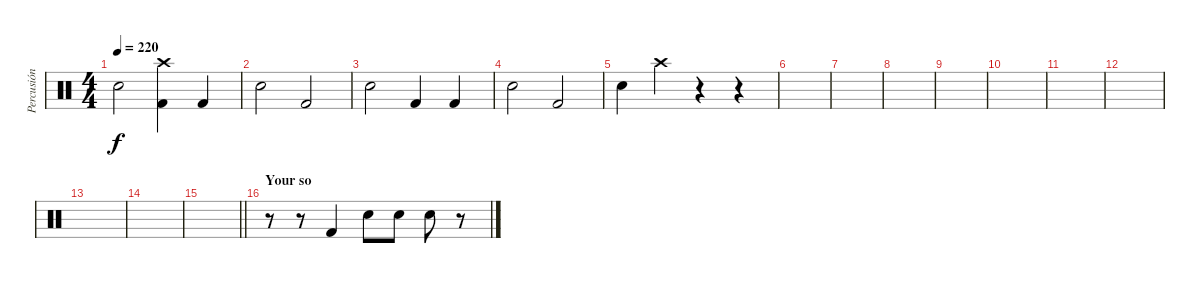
\track ("Percusión" "Percusión") {instrument percussion}
\staff {score}
\articulation defaults
\ts (4 4)
\tempo 220
\clef neutral
\ks c "Electric Snare (hit)".2{dy f}
("Crash high (hit)" "Kick (hit) 2").4 "Kick (hit) 2".4 |
"Electric Snare (hit)".2 "Kick (hit) 2".2 |
"Electric Snare (hit)".2 "Kick (hit) 2".4 "Kick (hit) 2".4 |
"Electric Snare (hit)".2 "Kick (hit) 2".2 |
"Electric Snare (hit)".4 "Crash high (hit)".4 r.4 r.4 |
|
|
|
|
|
|
|
|
|
\barLineRight lightlight
|
\section ("" "Your so")
r.8 r.8 "Kick (hit) 2".4 "Electric Snare (hit)".8 "Electric Snare (hit)".8 "Electric Snare (hit)".8 r.8
